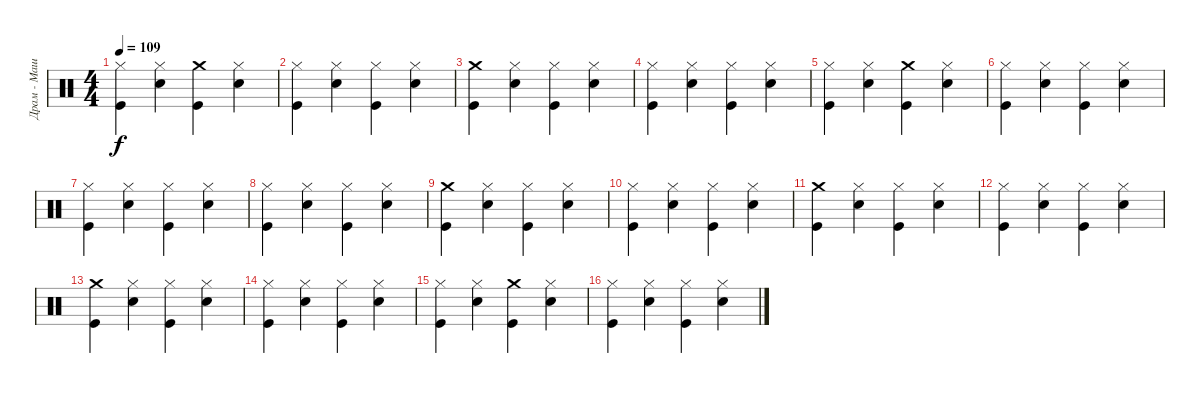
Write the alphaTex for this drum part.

\track ("Драм - Машина" "Драм - Маш") {instrument percussion}
\staff {score}
\articulation defaults
\ts (4 4)
\tempo 109
\clef neutral
\ks c
("Hi-Hat (closed)" "Kick (hit)").4{dy f} ("Hi-Hat (closed)" "Snare (hit) 2").4 ("Crash medium (hit)" "Kick (hit)").4 ("Hi-Hat (closed)" "Snare (hit) 2").4 |
("Hi-Hat (closed)" "Kick (hit)").4 ("Hi-Hat (closed)" "Snare (hit) 2").4 ("Hi-Hat (closed)" "Kick (hit)").4 ("Hi-Hat (closed)" "Snare (hit) 2").4 |
("Crash medium (hit)" "Kick (hit)").4 ("Hi-Hat (closed)" "Snare (hit) 2").4 ("Hi-Hat (closed)" "Kick (hit)").4 ("Hi-Hat (closed)" "Snare (hit) 2").4 |
("Hi-Hat (closed)" "Kick (hit)").4 ("Hi-Hat (closed)" "Snare (hit) 2").4 ("Hi-Hat (closed)" "Kick (hit)").4 ("Hi-Hat (closed)" "Snare (hit) 2").4 |
("Hi-Hat (closed)" "Kick (hit)").4 ("Hi-Hat (closed)" "Snare (hit) 2").4 ("Crash medium (hit)" "Kick (hit)").4 ("Hi-Hat (closed)" "Snare (hit) 2").4 |
("Hi-Hat (closed)" "Kick (hit)").4 ("Hi-Hat (closed)" "Snare (hit) 2").4 ("Hi-Hat (closed)" "Kick (hit)").4 ("Hi-Hat (closed)" "Snare (hit) 2").4 |
("Hi-Hat (closed)" "Kick (hit)").4 ("Hi-Hat (closed)" "Snare (hit) 2").4 ("Hi-Hat (closed)" "Kick (hit)").4 ("Hi-Hat (closed)" "Snare (hit) 2").4 |
("Hi-Hat (closed)" "Kick (hit)").4 ("Hi-Hat (closed)" "Snare (hit) 2").4 ("Hi-Hat (closed)" "Kick (hit)").4 ("Hi-Hat (closed)" "Snare (hit) 2").4 |
("Crash medium (hit)" "Kick (hit)").4 ("Hi-Hat (closed)" "Snare (hit) 2").4 ("Hi-Hat (closed)" "Kick (hit)").4 ("Hi-Hat (closed)" "Snare (hit) 2").4 |
("Hi-Hat (closed)" "Kick (hit)").4 ("Hi-Hat (closed)" "Snare (hit) 2").4 ("Hi-Hat (closed)" "Kick (hit)").4 ("Hi-Hat (closed)" "Snare (hit) 2").4 |
("Crash medium (hit)" "Kick (hit)").4 ("Hi-Hat (closed)" "Snare (hit) 2").4 ("Hi-Hat (closed)" "Kick (hit)").4 ("Hi-Hat (closed)" "Snare (hit) 2").4 |
("Hi-Hat (closed)" "Kick (hit)").4 ("Hi-Hat (closed)" "Snare (hit) 2").4 ("Hi-Hat (closed)" "Kick (hit)").4 ("Hi-Hat (closed)" "Snare (hit) 2").4 |
("Crash medium (hit)" "Kick (hit)").4 ("Hi-Hat (closed)" "Snare (hit) 2").4 ("Hi-Hat (closed)" "Kick (hit)").4 ("Hi-Hat (closed)" "Snare (hit) 2").4 |
("Hi-Hat (closed)" "Kick (hit)").4 ("Hi-Hat (closed)" "Snare (hit) 2").4 ("Hi-Hat (closed)" "Kick (hit)").4 ("Hi-Hat (closed)" "Snare (hit) 2").4 |
("Hi-Hat (closed)" "Kick (hit)").4 ("Hi-Hat (closed)" "Snare (hit) 2").4 ("Crash medium (hit)" "Kick (hit)").4 ("Hi-Hat (closed)" "Snare (hit) 2").4 |
("Hi-Hat (closed)" "Kick (hit)").4 ("Hi-Hat (closed)" "Snare (hit) 2").4 ("Hi-Hat (closed)" "Kick (hit)").4 ("Hi-Hat (closed)" "Snare (hit) 2").4
